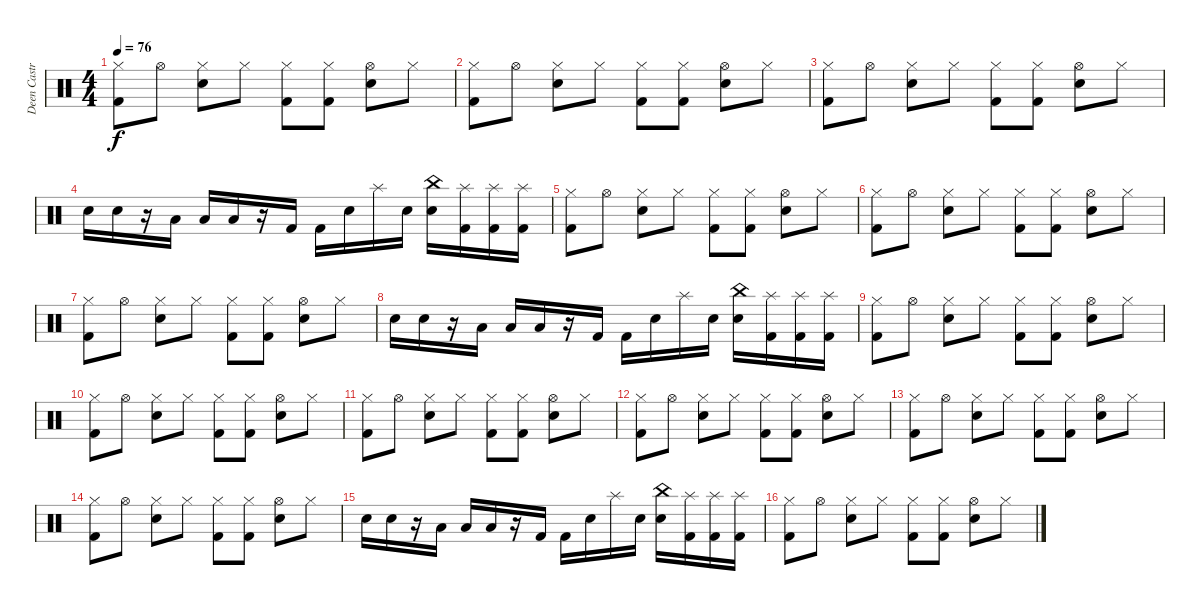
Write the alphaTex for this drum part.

\track ("Deen Castronovo" "Deen Castr") {instrument percussion}
\staff {score}
\articulation defaults
\ts (4 4)
\tempo 76
\clef neutral
\ks c
("Kick (hit) 2" "Hi-Hat (closed)").8{dy f} "Hi-Hat (open)".8 ("Electric Snare (hit)" "Hi-Hat (closed)").8 "Hi-Hat (closed)".8 ("Kick (hit) 2" "Hi-Hat (closed)").8 ("Kick (hit) 2" "Hi-Hat (closed)").8 ("Electric Snare (hit)" "Hi-Hat (open)").8 "Hi-Hat (closed)".8 |
("Kick (hit) 2" "Hi-Hat (closed)").8 "Hi-Hat (open)".8 ("Electric Snare (hit)" "Hi-Hat (closed)").8 "Hi-Hat (closed)".8 ("Kick (hit) 2" "Hi-Hat (closed)").8 ("Kick (hit) 2" "Hi-Hat (closed)").8 ("Electric Snare (hit)" "Hi-Hat (open)").8 "Hi-Hat (closed)".8 |
("Kick (hit) 2" "Hi-Hat (closed)").8 "Hi-Hat (open)".8 ("Electric Snare (hit)" "Hi-Hat (closed)").8 "Hi-Hat (closed)".8 ("Kick (hit) 2" "Hi-Hat (closed)").8 ("Kick (hit) 2" "Hi-Hat (closed)").8 ("Electric Snare (hit)" "Hi-Hat (open)").8 "Hi-Hat (closed)".8 |
"Electric Snare (hit)".16 "Electric Snare (hit)".16 r.16 "Low Tom (hit)".16 "Low Tom (hit)".16 "Low Tom (hit)".16 r.16 "Kick (hit) 2".16 "Kick (hit) 2".16 "Electric Snare (hit)".16 "Splash (hit)".16 "Electric Snare (hit)".16 ("Electric Snare (hit)" "China (hit)").16 ("Kick (hit) 2" "Splash (hit)").16 ("Kick (hit) 2" "Splash (hit)").16 ("Kick (hit) 2" "Splash (hit)").16 |
("Kick (hit) 2" "Hi-Hat (closed)").8 "Hi-Hat (open)".8 ("Electric Snare (hit)" "Hi-Hat (closed)").8 "Hi-Hat (closed)".8 ("Kick (hit) 2" "Hi-Hat (closed)").8 ("Kick (hit) 2" "Hi-Hat (closed)").8 ("Electric Snare (hit)" "Hi-Hat (open)").8 "Hi-Hat (closed)".8 |
("Kick (hit) 2" "Hi-Hat (closed)").8 "Hi-Hat (open)".8 ("Electric Snare (hit)" "Hi-Hat (closed)").8 "Hi-Hat (closed)".8 ("Kick (hit) 2" "Hi-Hat (closed)").8 ("Kick (hit) 2" "Hi-Hat (closed)").8 ("Electric Snare (hit)" "Hi-Hat (open)").8 "Hi-Hat (closed)".8 |
("Kick (hit) 2" "Hi-Hat (closed)").8 "Hi-Hat (open)".8 ("Electric Snare (hit)" "Hi-Hat (closed)").8 "Hi-Hat (closed)".8 ("Kick (hit) 2" "Hi-Hat (closed)").8 ("Kick (hit) 2" "Hi-Hat (closed)").8 ("Electric Snare (hit)" "Hi-Hat (open)").8 "Hi-Hat (closed)".8 |
"Electric Snare (hit)".16 "Electric Snare (hit)".16 r.16 "Low Tom (hit)".16 "Low Tom (hit)".16 "Low Tom (hit)".16 r.16 "Kick (hit) 2".16 "Kick (hit) 2".16 "Electric Snare (hit)".16 "Splash (hit)".16 "Electric Snare (hit)".16 ("Electric Snare (hit)" "China (hit)").16 ("Kick (hit) 2" "Splash (hit)").16 ("Kick (hit) 2" "Splash (hit)").16 ("Kick (hit) 2" "Splash (hit)").16 |
("Kick (hit) 2" "Hi-Hat (closed)").8 "Hi-Hat (open)".8 ("Electric Snare (hit)" "Hi-Hat (closed)").8 "Hi-Hat (closed)".8 ("Kick (hit) 2" "Hi-Hat (closed)").8 ("Kick (hit) 2" "Hi-Hat (closed)").8 ("Electric Snare (hit)" "Hi-Hat (open)").8 "Hi-Hat (closed)".8 |
("Kick (hit) 2" "Hi-Hat (closed)").8 "Hi-Hat (open)".8 ("Electric Snare (hit)" "Hi-Hat (closed)").8 "Hi-Hat (closed)".8 ("Kick (hit) 2" "Hi-Hat (closed)").8 ("Kick (hit) 2" "Hi-Hat (closed)").8 ("Electric Snare (hit)" "Hi-Hat (open)").8 "Hi-Hat (closed)".8 |
("Kick (hit) 2" "Hi-Hat (closed)").8 "Hi-Hat (open)".8 ("Electric Snare (hit)" "Hi-Hat (closed)").8 "Hi-Hat (closed)".8 ("Kick (hit) 2" "Hi-Hat (closed)").8 ("Kick (hit) 2" "Hi-Hat (closed)").8 ("Electric Snare (hit)" "Hi-Hat (open)").8 "Hi-Hat (closed)".8 |
("Kick (hit) 2" "Hi-Hat (closed)").8 "Hi-Hat (open)".8 ("Electric Snare (hit)" "Hi-Hat (closed)").8 "Hi-Hat (closed)".8 ("Kick (hit) 2" "Hi-Hat (closed)").8 ("Kick (hit) 2" "Hi-Hat (closed)").8 ("Electric Snare (hit)" "Hi-Hat (open)").8 "Hi-Hat (closed)".8 |
("Kick (hit) 2" "Hi-Hat (closed)").8 "Hi-Hat (open)".8 ("Electric Snare (hit)" "Hi-Hat (closed)").8 "Hi-Hat (closed)".8 ("Kick (hit) 2" "Hi-Hat (closed)").8 ("Kick (hit) 2" "Hi-Hat (closed)").8 ("Electric Snare (hit)" "Hi-Hat (open)").8 "Hi-Hat (closed)".8 |
("Kick (hit) 2" "Hi-Hat (closed)").8 "Hi-Hat (open)".8 ("Electric Snare (hit)" "Hi-Hat (closed)").8 "Hi-Hat (closed)".8 ("Kick (hit) 2" "Hi-Hat (closed)").8 ("Kick (hit) 2" "Hi-Hat (closed)").8 ("Electric Snare (hit)" "Hi-Hat (open)").8 "Hi-Hat (closed)".8 |
"Electric Snare (hit)".16 "Electric Snare (hit)".16 r.16 "Low Tom (hit)".16 "Low Tom (hit)".16 "Low Tom (hit)".16 r.16 "Kick (hit) 2".16 "Kick (hit) 2".16 "Electric Snare (hit)".16 "Splash (hit)".16 "Electric Snare (hit)".16 ("Electric Snare (hit)" "China (hit)").16 ("Kick (hit) 2" "Splash (hit)").16 ("Kick (hit) 2" "Splash (hit)").16 ("Kick (hit) 2" "Splash (hit)").16 |
("Kick (hit) 2" "Hi-Hat (closed)").8 "Hi-Hat (open)".8 ("Electric Snare (hit)" "Hi-Hat (closed)").8 "Hi-Hat (closed)".8 ("Kick (hit) 2" "Hi-Hat (closed)").8 ("Kick (hit) 2" "Hi-Hat (closed)").8 ("Electric Snare (hit)" "Hi-Hat (open)").8 "Hi-Hat (closed)".8
